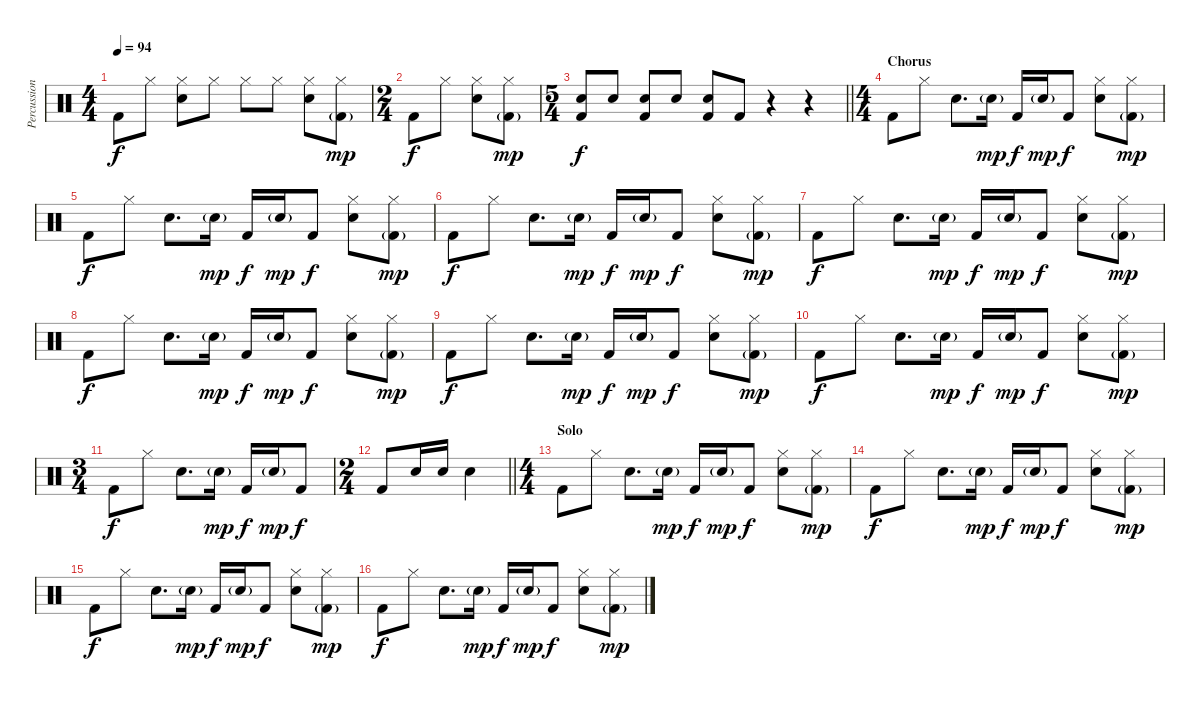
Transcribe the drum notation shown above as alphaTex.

\track ("Percussion" "Percussion") {instrument percussion}
\staff {score}
\articulation defaults
\ts (4 4)
\tempo 94
\clef neutral
\ks c "Kick (hit) 2".8{dy f} "Hi-Hat (closed)".8
("Hi-Hat (closed)" "Snare (hit) 2").8 "Hi-Hat (closed)".8 "Hi-Hat (closed)".8 "Hi-Hat (closed)".8 ("Hi-Hat (closed)" "Snare (hit) 2").8 ("Hi-Hat (closed)" "Kick (hit) 2"{g}).8{dy mp} |
\ts (2 4)
"Kick (hit) 2".8{dy f} "Hi-Hat (closed)".8 ("Hi-Hat (closed)" "Snare (hit) 2").8 ("Hi-Hat (closed)" "Kick (hit) 2"{g}).8{dy mp} |
\ts (5 4)
\barLineRight lightlight
("Snare (hit) 2" "Kick (hit) 2").8{dy f} "Snare (hit) 2".8 ("Snare (hit) 2" "Kick (hit) 2").8 "Snare (hit) 2".8 ("Snare (hit) 2" "Kick (hit) 2").8 "Kick (hit) 2".8 r.4 r.4 |
\ts (4 4)
\section ("" "Chorus")
"Kick (hit) 2".8 "Hi-Hat (closed)".8 "Snare (hit) 2".8{d} "Snare (hit) 2"{g}.16{dy mp} "Kick (hit) 2".16{dy f} "Snare (hit) 2"{g}.16{dy mp} "Kick (hit) 2".8{dy f} ("Hi-Hat (closed)" "Snare (hit) 2").8 ("Hi-Hat (closed)" "Kick (hit) 2"{g}).8{dy mp} |
"Kick (hit) 2".8{dy f} "Hi-Hat (closed)".8 "Snare (hit) 2".8{d} "Snare (hit) 2"{g}.16{dy mp} "Kick (hit) 2".16{dy f} "Snare (hit) 2"{g}.16{dy mp} "Kick (hit) 2".8{dy f} ("Hi-Hat (closed)" "Snare (hit) 2").8 ("Hi-Hat (closed)" "Kick (hit) 2"{g}).8{dy mp} |
"Kick (hit) 2".8{dy f} "Hi-Hat (closed)".8 "Snare (hit) 2".8{d} "Snare (hit) 2"{g}.16{dy mp} "Kick (hit) 2".16{dy f} "Snare (hit) 2"{g}.16{dy mp} "Kick (hit) 2".8{dy f} ("Hi-Hat (closed)" "Snare (hit) 2").8 ("Hi-Hat (closed)" "Kick (hit) 2"{g}).8{dy mp} |
"Kick (hit) 2".8{dy f} "Hi-Hat (closed)".8 "Snare (hit) 2".8{d} "Snare (hit) 2"{g}.16{dy mp} "Kick (hit) 2".16{dy f} "Snare (hit) 2"{g}.16{dy mp} "Kick (hit) 2".8{dy f} ("Hi-Hat (closed)" "Snare (hit) 2").8 ("Hi-Hat (closed)" "Kick (hit) 2"{g}).8{dy mp} |
"Kick (hit) 2".8{dy f} "Hi-Hat (closed)".8 "Snare (hit) 2".8{d} "Snare (hit) 2"{g}.16{dy mp} "Kick (hit) 2".16{dy f} "Snare (hit) 2"{g}.16{dy mp} "Kick (hit) 2".8{dy f} ("Hi-Hat (closed)" "Snare (hit) 2").8 ("Hi-Hat (closed)" "Kick (hit) 2"{g}).8{dy mp} |
"Kick (hit) 2".8{dy f} "Hi-Hat (closed)".8 "Snare (hit) 2".8{d} "Snare (hit) 2"{g}.16{dy mp} "Kick (hit) 2".16{dy f} "Snare (hit) 2"{g}.16{dy mp} "Kick (hit) 2".8{dy f} ("Hi-Hat (closed)" "Snare (hit) 2").8 ("Hi-Hat (closed)" "Kick (hit) 2"{g}).8{dy mp} |
"Kick (hit) 2".8{dy f} "Hi-Hat (closed)".8 "Snare (hit) 2".8{d} "Snare (hit) 2"{g}.16{dy mp} "Kick (hit) 2".16{dy f} "Snare (hit) 2"{g}.16{dy mp} "Kick (hit) 2".8{dy f} ("Hi-Hat (closed)" "Snare (hit) 2").8 ("Hi-Hat (closed)" "Kick (hit) 2"{g}).8{dy mp} |
\ts (3 4)
"Kick (hit) 2".8{dy f} "Hi-Hat (closed)".8 "Snare (hit) 2".8{d} "Snare (hit) 2"{g}.16{dy mp} "Kick (hit) 2".16{dy f} "Snare (hit) 2"{g}.16{dy mp} "Kick (hit) 2".8{dy f} |
\ts (2 4)
\barLineRight lightlight "Kick (hit) 2".8 "Snare (hit) 2".16 "Snare (hit) 2".16 "Snare (hit) 2".4
|
\ts (4 4)
\section ("" "Solo")
"Kick (hit) 2".8 "Hi-Hat (closed)".8 "Snare (hit) 2".8{d} "Snare (hit) 2"{g}.16{dy mp} "Kick (hit) 2".16{dy f} "Snare (hit) 2"{g}.16{dy mp} "Kick (hit) 2".8{dy f} ("Hi-Hat (closed)" "Snare (hit) 2").8 ("Hi-Hat (closed)" "Kick (hit) 2"{g}).8{dy mp} |
"Kick (hit) 2".8{dy f} "Hi-Hat (closed)".8 "Snare (hit) 2".8{d} "Snare (hit) 2"{g}.16{dy mp} "Kick (hit) 2".16{dy f} "Snare (hit) 2"{g}.16{dy mp} "Kick (hit) 2".8{dy f} ("Hi-Hat (closed)" "Snare (hit) 2").8 ("Hi-Hat (closed)" "Kick (hit) 2"{g}).8{dy mp} |
"Kick (hit) 2".8{dy f} "Hi-Hat (closed)".8 "Snare (hit) 2".8{d} "Snare (hit) 2"{g}.16{dy mp} "Kick (hit) 2".16{dy f} "Snare (hit) 2"{g}.16{dy mp} "Kick (hit) 2".8{dy f} ("Hi-Hat (closed)" "Snare (hit) 2").8 ("Hi-Hat (closed)" "Kick (hit) 2"{g}).8{dy mp} |
"Kick (hit) 2".8{dy f} "Hi-Hat (closed)".8 "Snare (hit) 2".8{d} "Snare (hit) 2"{g}.16{dy mp} "Kick (hit) 2".16{dy f} "Snare (hit) 2"{g}.16{dy mp} "Kick (hit) 2".8{dy f} ("Hi-Hat (closed)" "Snare (hit) 2").8 ("Hi-Hat (closed)" "Kick (hit) 2"{g}).8{dy mp}
